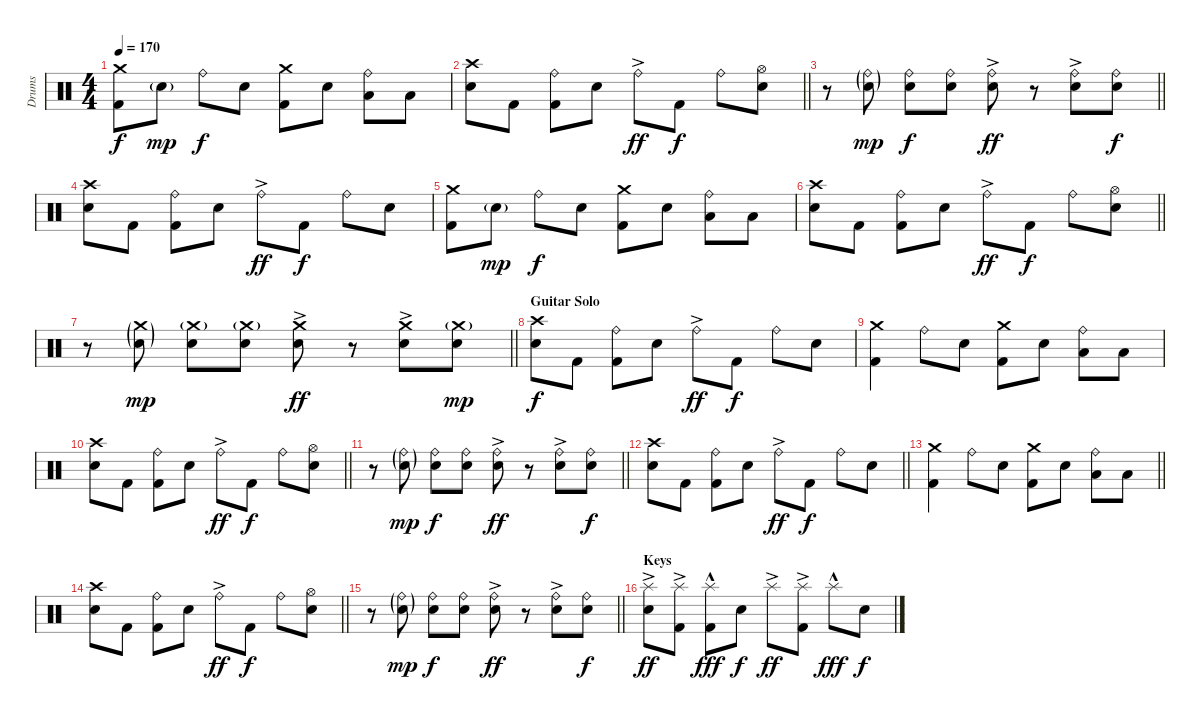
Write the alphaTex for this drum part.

\track ("Drums" "Drums") {instrument percussion}
\staff {score}
\articulation defaults
\ts (4 4)
\tempo 170
\clef neutral
\ks c
("Crash medium (hit)" "Kick (hit) 2").8{dy f} "Electric Snare (hit)"{g}.8{dy mp} "Ride (bell)".8{dy f} "Snare (hit) 2".8 ("Crash medium (hit)" "Kick (hit) 2").8 "Electric Snare (hit)".8 ("Ride (bell)" "Low Tom (hit)").8 "Low Tom (hit)".8 |
\barLineRight lightlight
("Crash high (hit)" "Snare (hit) 2").8 "Kick (hit) 2".8 ("Ride (bell)" "Kick (hit) 2").8 "Snare (hit) 2".8 "Ride (bell)"{ac}.8{dy ff} "Kick (hit) 2".8{dy f} "Ride (bell)".8 ("Hi-Hat (open)" "Snare (hit) 2").8 |
\barLineRight lightlight
r.8 ("Ride (bell)"{g} "Electric Snare (hit)"{g}).8{dy mp} ("Ride (bell)" "Electric Snare (hit)").8{dy f} ("Ride (bell)" "Electric Snare (hit)").8 ("Ride (bell)"{ac} "Electric Snare (hit)"{ac}).8{dy ff} r.8 ("Ride (bell)"{ac} "Electric Snare (hit)"{ac}).8 ("Ride (bell)" "Electric Snare (hit)").8{dy f} |
\section ("" "")
("Crash high (hit)" "Snare (hit) 2").8 "Kick (hit) 2".8 ("Ride (bell)" "Kick (hit) 2").8 "Snare (hit) 2".8 "Ride (bell)"{ac}.8{dy ff} "Kick (hit) 2".8{dy f} "Ride (bell)".8 "Snare (hit) 2".8 |
("Crash medium (hit)" "Kick (hit) 2").8 "Electric Snare (hit)"{g}.8{dy mp} "Ride (bell)".8{dy f} "Snare (hit) 2".8 ("Crash medium (hit)" "Kick (hit) 2").8 "Electric Snare (hit)".8 ("Ride (bell)" "Low Tom (hit)").8 "Low Tom (hit)".8 |
\barLineRight lightlight
("Crash high (hit)" "Snare (hit) 2").8 "Kick (hit) 2".8 ("Ride (bell)" "Kick (hit) 2").8 "Snare (hit) 2".8 "Ride (bell)"{ac}.8{dy ff} "Kick (hit) 2".8{dy f} "Ride (bell)".8 ("Hi-Hat (open)" "Snare (hit) 2").8 |
\barLineRight lightlight
r.8 ("Crash medium (hit)"{g} "Electric Snare (hit)"{g}).8{dy mp} ("Crash medium (hit)"{g} "Electric Snare (hit)").8 ("Crash medium (hit)"{g} "Electric Snare (hit)").8 ("Crash medium (hit)" "Electric Snare (hit)"{ac}).8{dy ff} r.8 ("Crash medium (hit)" "Electric Snare (hit)"{ac}).8 ("Crash medium (hit)"{g} "Electric Snare (hit)").8{dy mp} |
\section ("" "Guitar Solo")
("Crash high (hit)" "Snare (hit) 2").8{dy f} "Kick (hit) 2".8 ("Ride (bell)" "Kick (hit) 2").8 "Snare (hit) 2".8 "Ride (bell)"{ac}.8{dy ff} "Kick (hit) 2".8{dy f} "Ride (bell)".8 "Snare (hit) 2".8 |
("Crash medium (hit)" "Kick (hit) 2").4 "Ride (bell)".8 "Snare (hit) 2".8 ("Crash medium (hit)" "Kick (hit) 2").8 "Electric Snare (hit)".8 ("Ride (bell)" "Low Tom (hit)").8 "Low Tom (hit)".8 |
\barLineRight lightlight
("Crash high (hit)" "Snare (hit) 2").8 "Kick (hit) 2".8 ("Ride (bell)" "Kick (hit) 2").8 "Snare (hit) 2".8 "Ride (bell)"{ac}.8{dy ff} "Kick (hit) 2".8{dy f} "Ride (bell)".8 ("Hi-Hat (open)" "Snare (hit) 2").8 |
\barLineRight lightlight
r.8 ("Ride (bell)"{g} "Electric Snare (hit)"{g}).8{dy mp} ("Ride (bell)" "Electric Snare (hit)").8{dy f} ("Ride (bell)" "Electric Snare (hit)").8 ("Ride (bell)"{ac} "Electric Snare (hit)"{ac}).8{dy ff} r.8 ("Ride (bell)"{ac} "Electric Snare (hit)"{ac}).8 ("Ride (bell)" "Electric Snare (hit)").8{dy f} |
\section ("" "")
\barLineRight lightlight
("Crash high (hit)" "Snare (hit) 2").8 "Kick (hit) 2".8 ("Ride (bell)" "Kick (hit) 2").8 "Snare (hit) 2".8 "Ride (bell)"{ac}.8{dy ff} "Kick (hit) 2".8{dy f} "Ride (bell)".8 "Snare (hit) 2".8 |
\barLineRight lightlight
("Crash medium (hit)" "Kick (hit) 2").4 "Ride (bell)".8 "Snare (hit) 2".8 ("Crash medium (hit)" "Kick (hit) 2").8 "Electric Snare (hit)".8 ("Ride (bell)" "Low Tom (hit)").8 "Low Tom (hit)".8 |
\barLineRight lightlight
("Crash high (hit)" "Snare (hit) 2").8 "Kick (hit) 2".8 ("Ride (bell)" "Kick (hit) 2").8 "Snare (hit) 2".8 "Ride (bell)"{ac}.8{dy ff} "Kick (hit) 2".8{dy f} "Ride (bell)".8 ("Hi-Hat (open)" "Snare (hit) 2").8 |
\barLineRight lightlight
r.8 ("Ride (bell)"{g} "Electric Snare (hit)"{g}).8{dy mp} ("Ride (bell)" "Electric Snare (hit)").8{dy f} ("Ride (bell)" "Electric Snare (hit)").8 ("Ride (bell)"{ac} "Electric Snare (hit)"{ac}).8{dy ff} r.8 ("Ride (bell)"{ac} "Electric Snare (hit)"{ac}).8 ("Ride (bell)" "Electric Snare (hit)").8{dy f} |
\section ("" "Keys")
("Splash (hit)"{ac} "Snare (hit) 2").8{dy ff} ("Splash (hit)"{ac} "Kick (hit) 2").8 ("Splash (hit)"{hac} "Kick (hit) 2").8{dy fff} "Snare (hit) 2".8{dy f} "Splash (hit)"{ac}.8{dy ff} ("Splash (hit)"{ac} "Kick (hit) 2").8 "Splash (hit)"{hac}.8{dy fff} "Snare (hit) 2".8{dy f}
